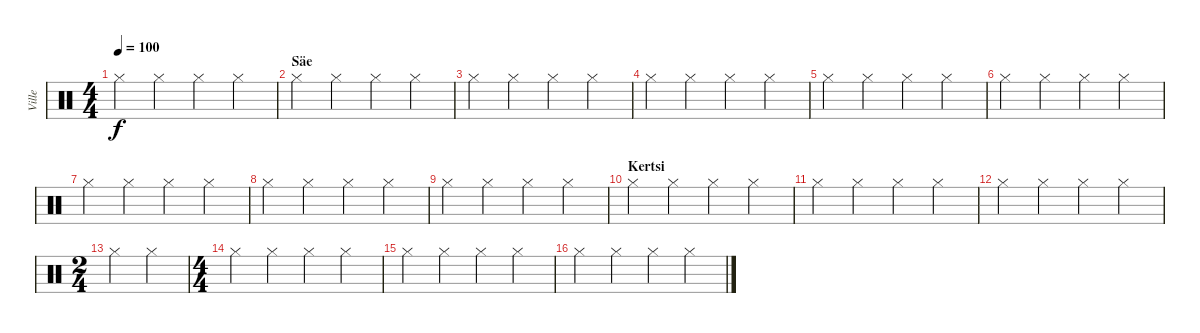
\track ("Ville" "Ville") {instrument percussion}
\staff {score}
\articulation defaults
\ts (4 4)
\tempo 100
\clef neutral
\ks c "Hi-Hat (closed)".4{dy f} "Hi-Hat (closed)".4 "Hi-Hat (closed)".4 "Hi-Hat (closed)".4
|
\section ("" "Säe")
"Hi-Hat (closed)".4 "Hi-Hat (closed)".4 "Hi-Hat (closed)".4 "Hi-Hat (closed)".4 |
"Hi-Hat (closed)".4 "Hi-Hat (closed)".4 "Hi-Hat (closed)".4 "Hi-Hat (closed)".4 |
"Hi-Hat (closed)".4 "Hi-Hat (closed)".4 "Hi-Hat (closed)".4 "Hi-Hat (closed)".4 |
"Hi-Hat (closed)".4 "Hi-Hat (closed)".4 "Hi-Hat (closed)".4 "Hi-Hat (closed)".4 |
"Hi-Hat (closed)".4 "Hi-Hat (closed)".4 "Hi-Hat (closed)".4 "Hi-Hat (closed)".4 |
"Hi-Hat (closed)".4 "Hi-Hat (closed)".4 "Hi-Hat (closed)".4 "Hi-Hat (closed)".4 |
"Hi-Hat (closed)".4 "Hi-Hat (closed)".4 "Hi-Hat (closed)".4 "Hi-Hat (closed)".4 |
"Hi-Hat (closed)".4 "Hi-Hat (closed)".4 "Hi-Hat (closed)".4 "Hi-Hat (closed)".4 |
\section ("" "Kertsi")
"Hi-Hat (closed)".4 "Hi-Hat (closed)".4 "Hi-Hat (closed)".4 "Hi-Hat (closed)".4 |
"Hi-Hat (closed)".4 "Hi-Hat (closed)".4 "Hi-Hat (closed)".4 "Hi-Hat (closed)".4 |
"Hi-Hat (closed)".4 "Hi-Hat (closed)".4 "Hi-Hat (closed)".4 "Hi-Hat (closed)".4 |
\ts (2 4)
"Hi-Hat (closed)".4 "Hi-Hat (closed)".4 |
\ts (4 4)
"Hi-Hat (closed)".4 "Hi-Hat (closed)".4 "Hi-Hat (closed)".4 "Hi-Hat (closed)".4 |
"Hi-Hat (closed)".4 "Hi-Hat (closed)".4 "Hi-Hat (closed)".4 "Hi-Hat (closed)".4 |
"Hi-Hat (closed)".4 "Hi-Hat (closed)".4 "Hi-Hat (closed)".4 "Hi-Hat (closed)".4
